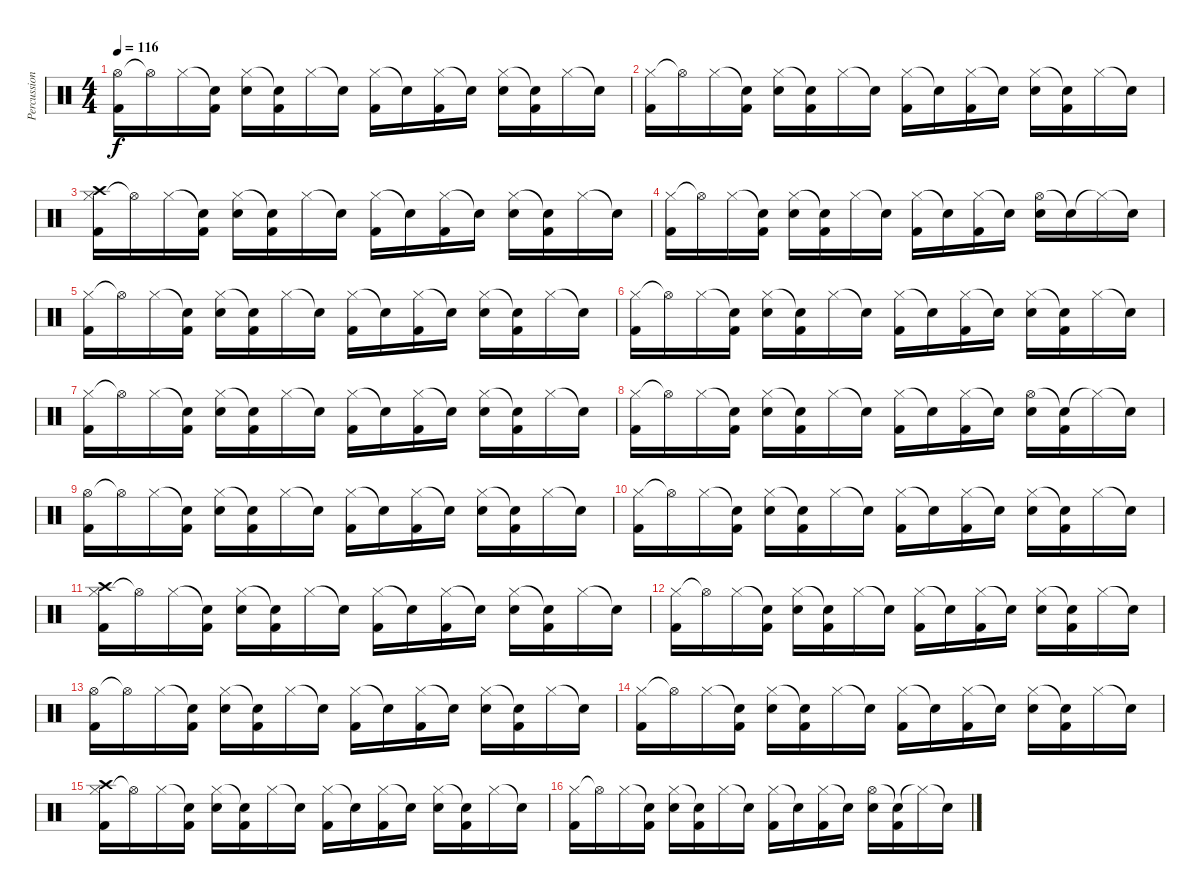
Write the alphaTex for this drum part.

\track ("Percussion" "Percussion") {instrument percussion}
\staff {score}
\articulation defaults
\ts (4 4)
\tempo 116
\clef neutral
\ks c
("Hi-Hat (open)" "Kick (hit) 2").16{dy f} "Hi-Hat (open)"{t}.16 "Hi-Hat (closed)".16 ("Snare (hit)"{t} "Kick (hit) 2").16 ("Hi-Hat (closed)" "Electric Snare (hit)").16 ("Snare (hit)"{t} "Kick (hit) 2").16 "Hi-Hat (closed)".16 "Snare (hit)"{t}.16 ("Hi-Hat (closed)" "Kick (hit) 2").16 "Snare (hit)"{t}.16 ("Hi-Hat (closed)" "Kick (hit) 2").16 "Snare (hit)"{t}.16 ("Hi-Hat (closed)" "Electric Snare (hit)").16 ("Snare (hit)"{t} "Kick (hit) 2").16 "Hi-Hat (closed)".16 "Snare (hit)"{t}.16 |
("Hi-Hat (closed)" "Kick (hit) 2").16 "Hi-Hat (open)"{t}.16 "Hi-Hat (closed)".16 ("Snare (hit)"{t} "Kick (hit) 2").16 ("Hi-Hat (closed)" "Electric Snare (hit)").16 ("Snare (hit)"{t} "Kick (hit) 2").16 "Hi-Hat (closed)".16 "Snare (hit)"{t}.16 ("Hi-Hat (closed)" "Kick (hit) 2").16 "Snare (hit)"{t}.16 ("Hi-Hat (closed)" "Kick (hit) 2").16 "Snare (hit)"{t}.16 ("Hi-Hat (closed)" "Electric Snare (hit)").16 ("Snare (hit)"{t} "Kick (hit) 2").16 "Hi-Hat (closed)".16 "Snare (hit)"{t}.16 |
("Hi-Hat (closed)" "Kick (hit) 2" "Crash high (hit)").16 "Hi-Hat (open)"{t}.16 "Hi-Hat (closed)".16 ("Snare (hit)"{t} "Kick (hit) 2").16 ("Hi-Hat (closed)" "Electric Snare (hit)").16 ("Snare (hit)"{t} "Kick (hit) 2").16 "Hi-Hat (closed)".16 "Snare (hit)"{t}.16 ("Hi-Hat (closed)" "Kick (hit) 2").16 "Snare (hit)"{t}.16 ("Hi-Hat (closed)" "Kick (hit) 2").16 "Snare (hit)"{t}.16 ("Hi-Hat (closed)" "Electric Snare (hit)").16 ("Snare (hit)"{t} "Kick (hit) 2").16 "Hi-Hat (closed)".16 "Snare (hit)"{t}.16 |
("Hi-Hat (closed)" "Kick (hit) 2").16 "Hi-Hat (open)"{t}.16 "Hi-Hat (closed)".16 ("Snare (hit)"{t} "Kick (hit) 2").16 ("Hi-Hat (closed)" "Electric Snare (hit)").16 ("Snare (hit)"{t} "Kick (hit) 2").16 "Hi-Hat (closed)".16 "Snare (hit)"{t}.16 ("Hi-Hat (closed)" "Kick (hit) 2").16 "Snare (hit)"{t}.16 ("Hi-Hat (closed)" "Kick (hit) 2").16 "Snare (hit)"{t}.16 ("Hi-Hat (open)" "Electric Snare (hit)").16 "Snare (hit)"{t}.16 "Hi-Hat (closed)"{t}.16 "Snare (hit)"{t}.16 |
("Hi-Hat (closed)" "Kick (hit) 2").16 "Hi-Hat (open)"{t}.16 "Hi-Hat (closed)".16 ("Snare (hit)"{t} "Kick (hit) 2").16 ("Hi-Hat (closed)" "Electric Snare (hit)").16 ("Snare (hit)"{t} "Kick (hit) 2").16 "Hi-Hat (closed)".16 "Snare (hit)"{t}.16 ("Hi-Hat (closed)" "Kick (hit) 2").16 "Snare (hit)"{t}.16 ("Hi-Hat (closed)" "Kick (hit) 2").16 "Snare (hit)"{t}.16 ("Hi-Hat (closed)" "Electric Snare (hit)").16 ("Snare (hit)"{t} "Kick (hit) 2").16 "Hi-Hat (closed)".16 "Snare (hit)"{t}.16 |
("Hi-Hat (closed)" "Kick (hit) 2").16 "Hi-Hat (open)"{t}.16 "Hi-Hat (closed)".16 ("Snare (hit)"{t} "Kick (hit) 2").16 ("Hi-Hat (closed)" "Electric Snare (hit)").16 ("Snare (hit)"{t} "Kick (hit) 2").16 "Hi-Hat (closed)".16 "Snare (hit)"{t}.16 ("Hi-Hat (closed)" "Kick (hit) 2").16 "Snare (hit)"{t}.16 ("Hi-Hat (closed)" "Kick (hit) 2").16 "Snare (hit)"{t}.16 ("Hi-Hat (closed)" "Electric Snare (hit)").16 ("Snare (hit)"{t} "Kick (hit) 2").16 "Hi-Hat (closed)".16 "Snare (hit)"{t}.16 |
("Hi-Hat (closed)" "Kick (hit) 2").16 "Hi-Hat (open)"{t}.16 "Hi-Hat (closed)".16 ("Snare (hit)"{t} "Kick (hit) 2").16 ("Hi-Hat (closed)" "Electric Snare (hit)").16 ("Snare (hit)"{t} "Kick (hit) 2").16 "Hi-Hat (closed)".16 "Snare (hit)"{t}.16 ("Hi-Hat (closed)" "Kick (hit) 2").16 "Snare (hit)"{t}.16 ("Hi-Hat (closed)" "Kick (hit) 2").16 "Snare (hit)"{t}.16 ("Hi-Hat (closed)" "Electric Snare (hit)").16 ("Snare (hit)"{t} "Kick (hit) 2").16 "Hi-Hat (closed)".16 "Snare (hit)"{t}.16 |
("Hi-Hat (closed)" "Kick (hit) 2").16 "Hi-Hat (open)"{t}.16 "Hi-Hat (closed)".16 ("Snare (hit)"{t} "Kick (hit) 2").16 ("Hi-Hat (closed)" "Electric Snare (hit)").16 ("Snare (hit)"{t} "Kick (hit) 2").16 "Hi-Hat (closed)".16 "Snare (hit)"{t}.16 ("Hi-Hat (closed)" "Kick (hit) 2").16 "Snare (hit)"{t}.16 ("Hi-Hat (closed)" "Kick (hit) 2").16 "Snare (hit)"{t}.16 ("Hi-Hat (open)" "Electric Snare (hit)").16 ("Snare (hit)"{t} "Kick (hit) 2").16 "Hi-Hat (closed)"{t}.16 "Snare (hit)"{t}.16 |
("Hi-Hat (open)" "Kick (hit) 2").16 "Hi-Hat (open)"{t}.16 "Hi-Hat (closed)".16 ("Snare (hit)"{t} "Kick (hit) 2").16 ("Hi-Hat (closed)" "Electric Snare (hit)").16 ("Snare (hit)"{t} "Kick (hit) 2").16 "Hi-Hat (closed)".16 "Snare (hit)"{t}.16 ("Hi-Hat (closed)" "Kick (hit) 2").16 "Snare (hit)"{t}.16 ("Hi-Hat (closed)" "Kick (hit) 2").16 "Snare (hit)"{t}.16 ("Hi-Hat (closed)" "Electric Snare (hit)").16 ("Snare (hit)"{t} "Kick (hit) 2").16 "Hi-Hat (closed)".16 "Snare (hit)"{t}.16 |
("Hi-Hat (closed)" "Kick (hit) 2").16 "Hi-Hat (open)"{t}.16 "Hi-Hat (closed)".16 ("Snare (hit)"{t} "Kick (hit) 2").16 ("Hi-Hat (closed)" "Electric Snare (hit)").16 ("Snare (hit)"{t} "Kick (hit) 2").16 "Hi-Hat (closed)".16 "Snare (hit)"{t}.16 ("Hi-Hat (closed)" "Kick (hit) 2").16 "Snare (hit)"{t}.16 ("Hi-Hat (closed)" "Kick (hit) 2").16 "Snare (hit)"{t}.16 ("Hi-Hat (closed)" "Electric Snare (hit)").16 ("Snare (hit)"{t} "Kick (hit) 2").16 "Hi-Hat (closed)".16 "Snare (hit)"{t}.16 |
("Hi-Hat (closed)" "Kick (hit) 2" "Crash high (hit)").16 "Hi-Hat (open)"{t}.16 "Hi-Hat (closed)".16 ("Snare (hit)"{t} "Kick (hit) 2").16 ("Hi-Hat (closed)" "Electric Snare (hit)").16 ("Snare (hit)"{t} "Kick (hit) 2").16 "Hi-Hat (closed)".16 "Snare (hit)"{t}.16 ("Hi-Hat (closed)" "Kick (hit) 2").16 "Snare (hit)"{t}.16 ("Hi-Hat (closed)" "Kick (hit) 2").16 "Snare (hit)"{t}.16 ("Hi-Hat (closed)" "Electric Snare (hit)").16 ("Snare (hit)"{t} "Kick (hit) 2").16 "Hi-Hat (closed)".16 "Snare (hit)"{t}.16 |
("Hi-Hat (closed)" "Kick (hit) 2").16 "Hi-Hat (open)"{t}.16 "Hi-Hat (closed)".16 ("Snare (hit)"{t} "Kick (hit) 2").16 ("Hi-Hat (closed)" "Electric Snare (hit)").16 ("Snare (hit)"{t} "Kick (hit) 2").16 "Hi-Hat (closed)".16 "Snare (hit)"{t}.16 ("Hi-Hat (closed)" "Kick (hit) 2").16 "Snare (hit)"{t}.16 ("Hi-Hat (closed)" "Kick (hit) 2").16 "Snare (hit)"{t}.16 ("Hi-Hat (closed)" "Electric Snare (hit)").16 ("Snare (hit)"{t} "Kick (hit) 2").16 "Hi-Hat (closed)".16 "Snare (hit)"{t}.16 |
("Hi-Hat (open)" "Kick (hit) 2").16 "Hi-Hat (open)"{t}.16 "Hi-Hat (closed)".16 ("Snare (hit)"{t} "Kick (hit) 2").16 ("Hi-Hat (closed)" "Electric Snare (hit)").16 ("Snare (hit)"{t} "Kick (hit) 2").16 "Hi-Hat (closed)".16 "Snare (hit)"{t}.16 ("Hi-Hat (closed)" "Kick (hit) 2").16 "Snare (hit)"{t}.16 ("Hi-Hat (closed)" "Kick (hit) 2").16 "Snare (hit)"{t}.16 ("Hi-Hat (closed)" "Electric Snare (hit)").16 ("Snare (hit)"{t} "Kick (hit) 2").16 "Hi-Hat (closed)".16 "Snare (hit)"{t}.16 |
("Hi-Hat (closed)" "Kick (hit) 2").16 "Hi-Hat (open)"{t}.16 "Hi-Hat (closed)".16 ("Snare (hit)"{t} "Kick (hit) 2").16 ("Hi-Hat (closed)" "Electric Snare (hit)").16 ("Snare (hit)"{t} "Kick (hit) 2").16 "Hi-Hat (closed)".16 "Snare (hit)"{t}.16 ("Hi-Hat (closed)" "Kick (hit) 2").16 "Snare (hit)"{t}.16 ("Hi-Hat (closed)" "Kick (hit) 2").16 "Snare (hit)"{t}.16 ("Hi-Hat (closed)" "Electric Snare (hit)").16 ("Snare (hit)"{t} "Kick (hit) 2").16 "Hi-Hat (closed)".16 "Snare (hit)"{t}.16 |
("Hi-Hat (closed)" "Kick (hit) 2" "Crash high (hit)").16 "Hi-Hat (open)"{t}.16 "Hi-Hat (closed)".16 ("Snare (hit)"{t} "Kick (hit) 2").16 ("Hi-Hat (closed)" "Electric Snare (hit)").16 ("Snare (hit)"{t} "Kick (hit) 2").16 "Hi-Hat (closed)".16 "Snare (hit)"{t}.16 ("Hi-Hat (closed)" "Kick (hit) 2").16 "Snare (hit)"{t}.16 ("Hi-Hat (closed)" "Kick (hit) 2").16 "Snare (hit)"{t}.16 ("Hi-Hat (closed)" "Electric Snare (hit)").16 ("Snare (hit)"{t} "Kick (hit) 2").16 "Hi-Hat (closed)".16 "Snare (hit)"{t}.16 |
("Hi-Hat (closed)" "Kick (hit) 2").16 "Hi-Hat (open)"{t}.16 "Hi-Hat (closed)".16 ("Snare (hit)"{t} "Kick (hit) 2").16 ("Hi-Hat (closed)" "Electric Snare (hit)").16 ("Snare (hit)"{t} "Kick (hit) 2").16 "Hi-Hat (closed)".16 "Snare (hit)"{t}.16 ("Hi-Hat (closed)" "Kick (hit) 2").16 "Snare (hit)"{t}.16 ("Hi-Hat (closed)" "Kick (hit) 2").16 "Snare (hit)"{t}.16 ("Hi-Hat (open)" "Electric Snare (hit)").16 ("Snare (hit)"{t} "Kick (hit) 2").16 "Hi-Hat (closed)"{t}.16 "Snare (hit)"{t}.16
